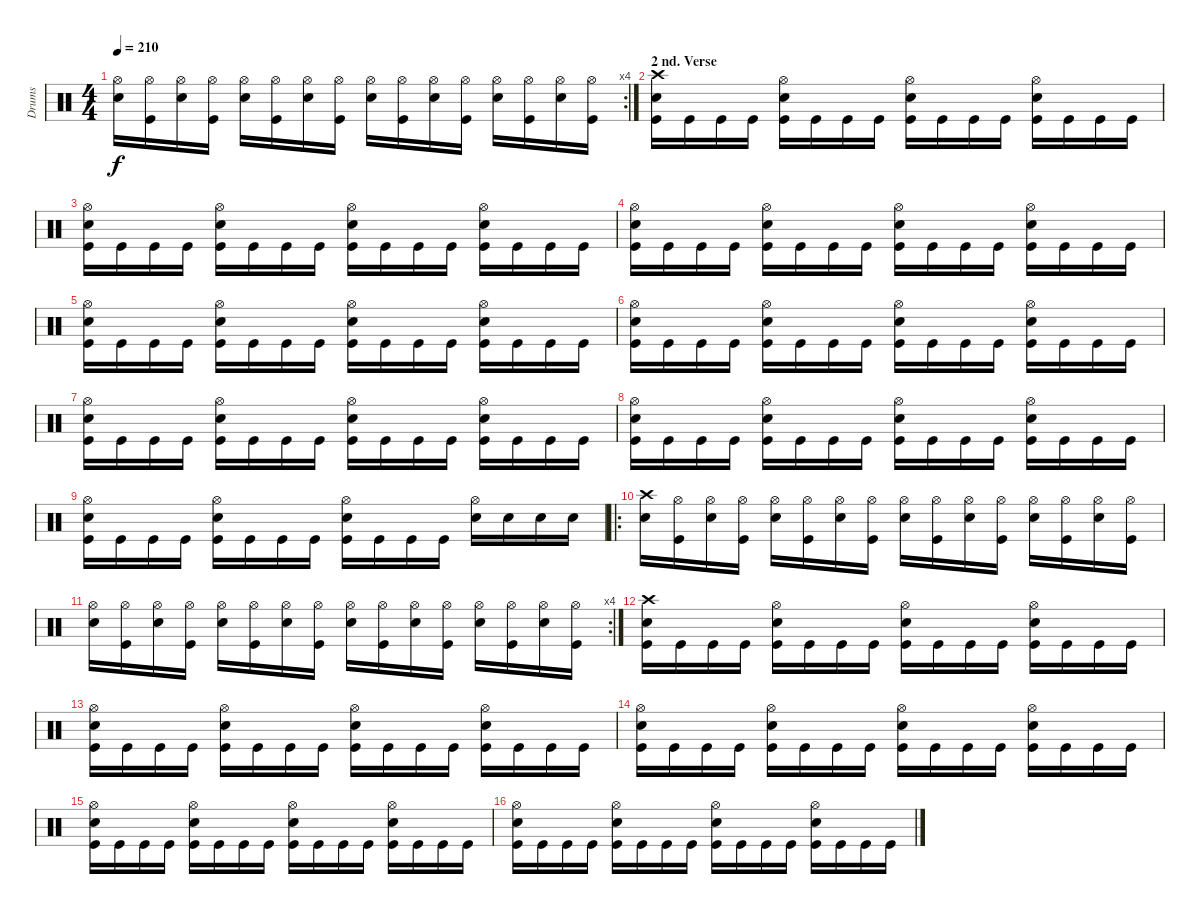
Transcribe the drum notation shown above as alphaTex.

\track ("Drums" "Drums") {instrument percussion}
\staff {score}
\articulation defaults
\rc 4
\ts (4 4)
\tempo 210
\clef neutral
\ks c
("Hi-Hat (open)" "Snare (hit) 2").16{dy f} ("Hi-Hat (open)" "Kick (hit)").16 ("Hi-Hat (open)" "Snare (hit) 2").16 ("Hi-Hat (open)" "Kick (hit)").16 ("Hi-Hat (open)" "Snare (hit) 2").16 ("Hi-Hat (open)" "Kick (hit)").16 ("Hi-Hat (open)" "Snare (hit) 2").16 ("Hi-Hat (open)" "Kick (hit)").16 ("Hi-Hat (open)" "Snare (hit) 2").16 ("Hi-Hat (open)" "Kick (hit)").16 ("Hi-Hat (open)" "Snare (hit) 2").16 ("Hi-Hat (open)" "Kick (hit)").16 ("Hi-Hat (open)" "Snare (hit) 2").16 ("Hi-Hat (open)" "Kick (hit)").16 ("Hi-Hat (open)" "Snare (hit) 2").16 ("Hi-Hat (open)" "Kick (hit)").16 |
\section ("" "2 nd. Verse")
("Crash high (hit)" "Snare (hit) 2" "Kick (hit)").16 "Kick (hit)".16 "Kick (hit)".16 "Kick (hit)".16 ("Hi-Hat (open)" "Snare (hit) 2" "Kick (hit)").16 "Kick (hit)".16 "Kick (hit)".16 "Kick (hit)".16 ("Hi-Hat (open)" "Snare (hit) 2" "Kick (hit)").16 "Kick (hit)".16 "Kick (hit)".16 "Kick (hit)".16 ("Hi-Hat (open)" "Snare (hit) 2" "Kick (hit)").16 "Kick (hit)".16 "Kick (hit)".16 "Kick (hit)".16 |
("Hi-Hat (open)" "Snare (hit) 2" "Kick (hit)").16 "Kick (hit)".16 "Kick (hit)".16 "Kick (hit)".16 ("Hi-Hat (open)" "Snare (hit) 2" "Kick (hit)").16 "Kick (hit)".16 "Kick (hit)".16 "Kick (hit)".16 ("Hi-Hat (open)" "Snare (hit) 2" "Kick (hit)").16 "Kick (hit)".16 "Kick (hit)".16 "Kick (hit)".16 ("Hi-Hat (open)" "Snare (hit) 2" "Kick (hit)").16 "Kick (hit)".16 "Kick (hit)".16 "Kick (hit)".16 |
("Hi-Hat (open)" "Snare (hit) 2" "Kick (hit)").16 "Kick (hit)".16 "Kick (hit)".16 "Kick (hit)".16 ("Hi-Hat (open)" "Snare (hit) 2" "Kick (hit)").16 "Kick (hit)".16 "Kick (hit)".16 "Kick (hit)".16 ("Hi-Hat (open)" "Snare (hit) 2" "Kick (hit)").16 "Kick (hit)".16 "Kick (hit)".16 "Kick (hit)".16 ("Hi-Hat (open)" "Snare (hit) 2" "Kick (hit)").16 "Kick (hit)".16 "Kick (hit)".16 "Kick (hit)".16 |
("Hi-Hat (open)" "Snare (hit) 2" "Kick (hit)").16 "Kick (hit)".16 "Kick (hit)".16 "Kick (hit)".16 ("Hi-Hat (open)" "Snare (hit) 2" "Kick (hit)").16 "Kick (hit)".16 "Kick (hit)".16 "Kick (hit)".16 ("Hi-Hat (open)" "Snare (hit) 2" "Kick (hit)").16 "Kick (hit)".16 "Kick (hit)".16 "Kick (hit)".16 ("Hi-Hat (open)" "Snare (hit) 2" "Kick (hit)").16 "Kick (hit)".16 "Kick (hit)".16 "Kick (hit)".16 |
("Hi-Hat (open)" "Snare (hit) 2" "Kick (hit)").16 "Kick (hit)".16 "Kick (hit)".16 "Kick (hit)".16 ("Hi-Hat (open)" "Snare (hit) 2" "Kick (hit)").16 "Kick (hit)".16 "Kick (hit)".16 "Kick (hit)".16 ("Hi-Hat (open)" "Snare (hit) 2" "Kick (hit)").16 "Kick (hit)".16 "Kick (hit)".16 "Kick (hit)".16 ("Hi-Hat (open)" "Snare (hit) 2" "Kick (hit)").16 "Kick (hit)".16 "Kick (hit)".16 "Kick (hit)".16 |
("Hi-Hat (open)" "Snare (hit) 2" "Kick (hit)").16 "Kick (hit)".16 "Kick (hit)".16 "Kick (hit)".16 ("Hi-Hat (open)" "Snare (hit) 2" "Kick (hit)").16 "Kick (hit)".16 "Kick (hit)".16 "Kick (hit)".16 ("Hi-Hat (open)" "Snare (hit) 2" "Kick (hit)").16 "Kick (hit)".16 "Kick (hit)".16 "Kick (hit)".16 ("Hi-Hat (open)" "Snare (hit) 2" "Kick (hit)").16 "Kick (hit)".16 "Kick (hit)".16 "Kick (hit)".16 |
("Hi-Hat (open)" "Snare (hit) 2" "Kick (hit)").16 "Kick (hit)".16 "Kick (hit)".16 "Kick (hit)".16 ("Hi-Hat (open)" "Snare (hit) 2" "Kick (hit)").16 "Kick (hit)".16 "Kick (hit)".16 "Kick (hit)".16 ("Hi-Hat (open)" "Snare (hit) 2" "Kick (hit)").16 "Kick (hit)".16 "Kick (hit)".16 "Kick (hit)".16 ("Hi-Hat (open)" "Snare (hit) 2" "Kick (hit)").16 "Kick (hit)".16 "Kick (hit)".16 "Kick (hit)".16 |
("Hi-Hat (open)" "Snare (hit) 2" "Kick (hit)").16 "Kick (hit)".16 "Kick (hit)".16 "Kick (hit)".16 ("Hi-Hat (open)" "Snare (hit) 2" "Kick (hit)").16 "Kick (hit)".16 "Kick (hit)".16 "Kick (hit)".16 ("Hi-Hat (open)" "Snare (hit) 2" "Kick (hit)").16 "Kick (hit)".16 "Kick (hit)".16 "Kick (hit)".16 ("Hi-Hat (open)" "Snare (hit) 2").16 "Snare (hit) 2".16 "Snare (hit) 2".16 "Snare (hit) 2".16 |
\ro
("Crash high (hit)" "Snare (hit) 2").16 ("Hi-Hat (open)" "Kick (hit)").16 ("Hi-Hat (open)" "Snare (hit) 2").16 ("Hi-Hat (open)" "Kick (hit)").16 ("Hi-Hat (open)" "Snare (hit) 2").16 ("Hi-Hat (open)" "Kick (hit)").16 ("Hi-Hat (open)" "Snare (hit) 2").16 ("Hi-Hat (open)" "Kick (hit)").16 ("Hi-Hat (open)" "Snare (hit) 2").16 ("Hi-Hat (open)" "Kick (hit)").16 ("Hi-Hat (open)" "Snare (hit) 2").16 ("Hi-Hat (open)" "Kick (hit)").16 ("Hi-Hat (open)" "Snare (hit) 2").16 ("Hi-Hat (open)" "Kick (hit)").16 ("Hi-Hat (open)" "Snare (hit) 2").16 ("Hi-Hat (open)" "Kick (hit)").16 |
\rc 4
("Hi-Hat (open)" "Snare (hit) 2").16 ("Hi-Hat (open)" "Kick (hit)").16 ("Hi-Hat (open)" "Snare (hit) 2").16 ("Hi-Hat (open)" "Kick (hit)").16 ("Hi-Hat (open)" "Snare (hit) 2").16 ("Hi-Hat (open)" "Kick (hit)").16 ("Hi-Hat (open)" "Snare (hit) 2").16 ("Hi-Hat (open)" "Kick (hit)").16 ("Hi-Hat (open)" "Snare (hit) 2").16 ("Hi-Hat (open)" "Kick (hit)").16 ("Hi-Hat (open)" "Snare (hit) 2").16 ("Hi-Hat (open)" "Kick (hit)").16 ("Hi-Hat (open)" "Snare (hit) 2").16 ("Hi-Hat (open)" "Kick (hit)").16 ("Hi-Hat (open)" "Snare (hit) 2").16 ("Hi-Hat (open)" "Kick (hit)").16 |
("Crash high (hit)" "Snare (hit) 2" "Kick (hit)").16 "Kick (hit)".16 "Kick (hit)".16 "Kick (hit)".16 ("Hi-Hat (open)" "Snare (hit) 2" "Kick (hit)").16 "Kick (hit)".16 "Kick (hit)".16 "Kick (hit)".16 ("Hi-Hat (open)" "Snare (hit) 2" "Kick (hit)").16 "Kick (hit)".16 "Kick (hit)".16 "Kick (hit)".16 ("Hi-Hat (open)" "Snare (hit) 2" "Kick (hit)").16 "Kick (hit)".16 "Kick (hit)".16 "Kick (hit)".16 |
("Hi-Hat (open)" "Snare (hit) 2" "Kick (hit)").16 "Kick (hit)".16 "Kick (hit)".16 "Kick (hit)".16 ("Hi-Hat (open)" "Snare (hit) 2" "Kick (hit)").16 "Kick (hit)".16 "Kick (hit)".16 "Kick (hit)".16 ("Hi-Hat (open)" "Snare (hit) 2" "Kick (hit)").16 "Kick (hit)".16 "Kick (hit)".16 "Kick (hit)".16 ("Hi-Hat (open)" "Snare (hit) 2" "Kick (hit)").16 "Kick (hit)".16 "Kick (hit)".16 "Kick (hit)".16 |
("Hi-Hat (open)" "Snare (hit) 2" "Kick (hit)").16 "Kick (hit)".16 "Kick (hit)".16 "Kick (hit)".16 ("Hi-Hat (open)" "Snare (hit) 2" "Kick (hit)").16 "Kick (hit)".16 "Kick (hit)".16 "Kick (hit)".16 ("Hi-Hat (open)" "Snare (hit) 2" "Kick (hit)").16 "Kick (hit)".16 "Kick (hit)".16 "Kick (hit)".16 ("Hi-Hat (open)" "Snare (hit) 2" "Kick (hit)").16 "Kick (hit)".16 "Kick (hit)".16 "Kick (hit)".16 |
("Hi-Hat (open)" "Snare (hit) 2" "Kick (hit)").16 "Kick (hit)".16 "Kick (hit)".16 "Kick (hit)".16 ("Hi-Hat (open)" "Snare (hit) 2" "Kick (hit)").16 "Kick (hit)".16 "Kick (hit)".16 "Kick (hit)".16 ("Hi-Hat (open)" "Snare (hit) 2" "Kick (hit)").16 "Kick (hit)".16 "Kick (hit)".16 "Kick (hit)".16 ("Hi-Hat (open)" "Snare (hit) 2" "Kick (hit)").16 "Kick (hit)".16 "Kick (hit)".16 "Kick (hit)".16 |
("Hi-Hat (open)" "Snare (hit) 2" "Kick (hit)").16 "Kick (hit)".16 "Kick (hit)".16 "Kick (hit)".16 ("Hi-Hat (open)" "Snare (hit) 2" "Kick (hit)").16 "Kick (hit)".16 "Kick (hit)".16 "Kick (hit)".16 ("Hi-Hat (open)" "Snare (hit) 2" "Kick (hit)").16 "Kick (hit)".16 "Kick (hit)".16 "Kick (hit)".16 ("Hi-Hat (open)" "Snare (hit) 2" "Kick (hit)").16 "Kick (hit)".16 "Kick (hit)".16 "Kick (hit)".16
